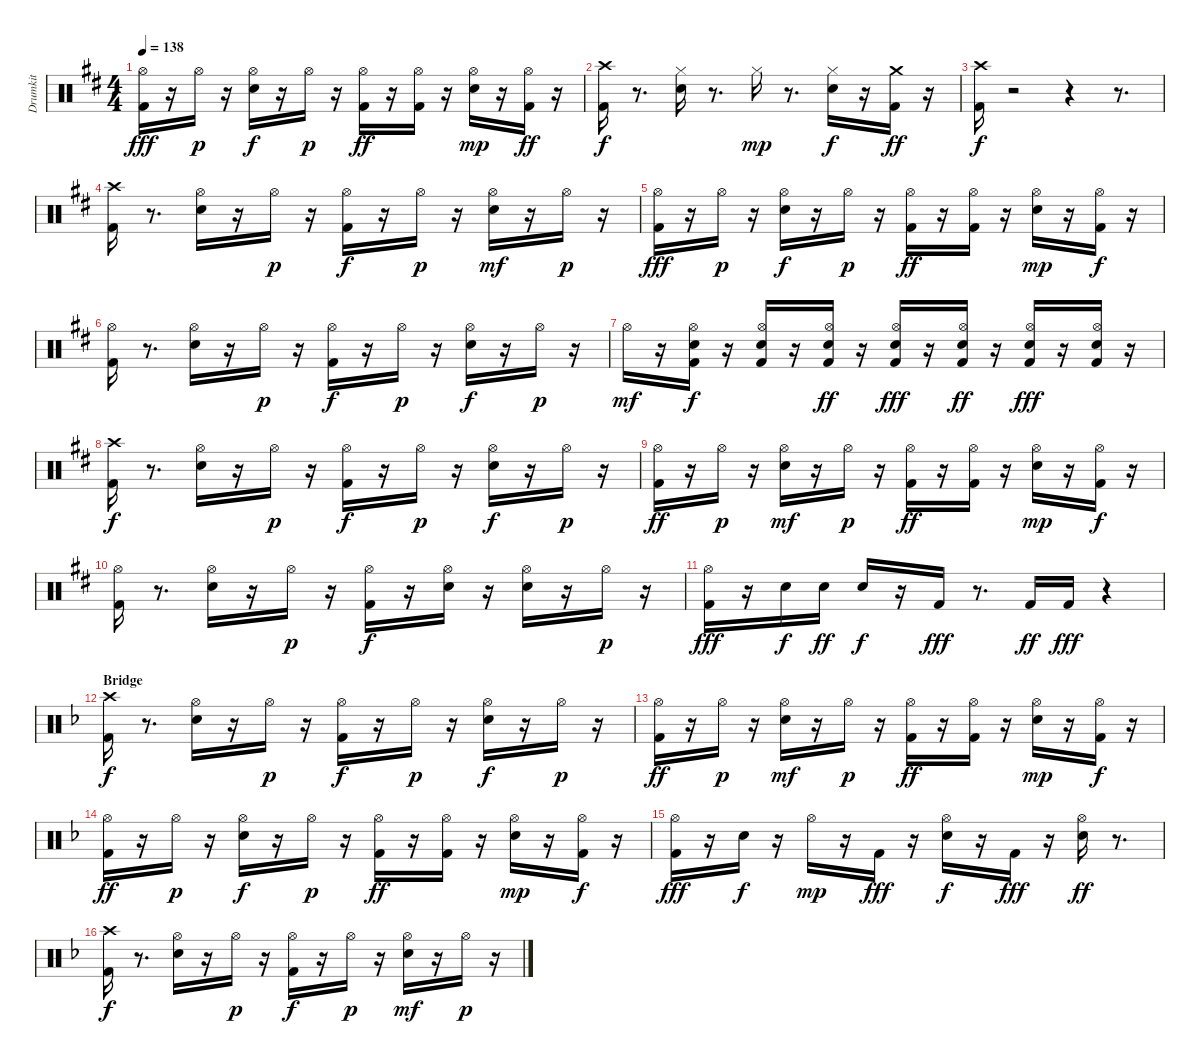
\track ("Drumkit" "Drumkit") {instrument percussion}
\staff {score}
\articulation defaults
\ts (4 4)
\tempo 138
\clef neutral
\ks d
("Kick (hit) 2" "Hi-Hat (open)").16{dy fff} r.16 "Hi-Hat (open)".16{dy p} r.16 ("Snare (hit) 2" "Hi-Hat (open)").16{dy f} r.16 "Hi-Hat (open)".16{dy p} r.16 ("Kick (hit) 2" "Hi-Hat (open)").16{dy ff} r.16 ("Kick (hit) 2" "Hi-Hat (open)").16 r.16 ("Snare (hit) 2" "Hi-Hat (open)").16{dy mp} r.16 ("Kick (hit) 2" "Hi-Hat (open)").16{dy ff} r.16 |
("Kick (hit) 2" "Crash high (hit)").16{dy f} r.8{d} ("Snare (hit) 2" "Hi-Hat (closed)").16 r.8{d} "Hi-Hat (closed)".16{dy mp} r.8{d} ("Snare (hit) 2" "Hi-Hat (closed)").16{dy f} r.16 ("Kick (hit) 2" "Crash medium (hit)").16{dy ff} r.16 |
("Kick (hit) 2" "Crash high (hit)").16{dy f} r.2 r.4 r.8{d} |
("Kick (hit) 2" "Crash high (hit)").16 r.8{d} ("Snare (hit) 2" "Hi-Hat (open)").16 r.16 "Hi-Hat (open)".16{dy p} r.16 ("Kick (hit) 2" "Hi-Hat (open)").16{dy f} r.16 "Hi-Hat (open)".16{dy p} r.16 ("Snare (hit) 2" "Hi-Hat (open)").16{dy mf} r.16 "Hi-Hat (open)".16{dy p} r.16 |
("Kick (hit) 2" "Hi-Hat (open)").16{dy fff} r.16 "Hi-Hat (open)".16{dy p} r.16 ("Snare (hit) 2" "Hi-Hat (open)").16{dy f} r.16 "Hi-Hat (open)".16{dy p} r.16 ("Kick (hit) 2" "Hi-Hat (open)").16{dy ff} r.16 ("Kick (hit) 2" "Hi-Hat (open)").16 r.16 ("Snare (hit) 2" "Hi-Hat (open)").16{dy mp} r.16 ("Kick (hit) 2" "Hi-Hat (open)").16{dy f} r.16 |
("Kick (hit) 2" "Hi-Hat (open)").16 r.8{d} ("Snare (hit) 2" "Hi-Hat (open)").16 r.16 "Hi-Hat (open)".16{dy p} r.16 ("Kick (hit) 2" "Hi-Hat (open)").16{dy f} r.16 "Hi-Hat (open)".16{dy p} r.16 ("Snare (hit) 2" "Hi-Hat (open)").16{dy f} r.16 "Hi-Hat (open)".16{dy p} r.16 |
"Hi-Hat (open)".16{dy mf} r.16 ("Kick (hit) 2" "Snare (hit) 2" "Hi-Hat (open)").16{dy f} r.16 ("Kick (hit) 2" "Snare (hit) 2" "Hi-Hat (open)").16 r.16 ("Kick (hit) 2" "Snare (hit) 2" "Hi-Hat (open)").16{dy ff} r.16 ("Kick (hit) 2" "Snare (hit) 2" "Hi-Hat (open)").16{dy fff} r.16 ("Kick (hit) 2" "Snare (hit) 2" "Hi-Hat (open)").16{dy ff} r.16 ("Kick (hit) 2" "Snare (hit) 2" "Hi-Hat (open)").16{dy fff} r.16 ("Kick (hit) 2" "Snare (hit) 2" "Hi-Hat (open)").16 r.16 |
("Kick (hit) 2" "Crash high (hit)").16{dy f} r.8{d} ("Snare (hit) 2" "Hi-Hat (open)").16 r.16 "Hi-Hat (open)".16{dy p} r.16 ("Kick (hit) 2" "Hi-Hat (open)").16{dy f} r.16 "Hi-Hat (open)".16{dy p} r.16 ("Snare (hit) 2" "Hi-Hat (open)").16{dy f} r.16 "Hi-Hat (open)".16{dy p} r.16 |
("Kick (hit) 2" "Hi-Hat (open)").16{dy ff} r.16 "Hi-Hat (open)".16{dy p} r.16 ("Snare (hit) 2" "Hi-Hat (open)").16{dy mf} r.16 "Hi-Hat (open)".16{dy p} r.16 ("Kick (hit) 2" "Hi-Hat (open)").16{dy ff} r.16 ("Kick (hit) 2" "Hi-Hat (open)").16 r.16 ("Snare (hit) 2" "Hi-Hat (open)").16{dy mp} r.16 ("Kick (hit) 2" "Hi-Hat (open)").16{dy f} r.16 |
("Kick (hit) 2" "Hi-Hat (open)").16 r.8{d} ("Snare (hit) 2" "Hi-Hat (open)").16 r.16 "Hi-Hat (open)".16{dy p} r.16 ("Kick (hit) 2" "Hi-Hat (open)").16{dy f} r.16 ("Snare (hit) 2" "Hi-Hat (open)").16 r.16 ("Snare (hit) 2" "Hi-Hat (open)").16 r.16 "Hi-Hat (open)".16{dy p} r.16 |
("Kick (hit) 2" "Hi-Hat (open)").16{dy fff} r.16 "Snare (hit) 2".16{dy f} "Snare (hit) 2".16{dy ff} "Snare (hit) 2".16{dy f} r.16 "Kick (hit) 2".16{dy fff} r.8{d} "Kick (hit) 2".16{dy ff} "Kick (hit) 2".16{dy fff} r.4 |
\section ("" "Bridge")
\ks f
("Kick (hit) 2" "Crash high (hit)").16{dy f} r.8{d} ("Snare (hit) 2" "Hi-Hat (open)").16 r.16 "Hi-Hat (open)".16{dy p} r.16 ("Kick (hit) 2" "Hi-Hat (open)").16{dy f} r.16 "Hi-Hat (open)".16{dy p} r.16 ("Snare (hit) 2" "Hi-Hat (open)").16{dy f} r.16 "Hi-Hat (open)".16{dy p} r.16 |
("Kick (hit) 2" "Hi-Hat (open)").16{dy ff} r.16 "Hi-Hat (open)".16{dy p} r.16 ("Snare (hit) 2" "Hi-Hat (open)").16{dy mf} r.16 "Hi-Hat (open)".16{dy p} r.16 ("Kick (hit) 2" "Hi-Hat (open)").16{dy ff} r.16 ("Kick (hit) 2" "Hi-Hat (open)").16 r.16 ("Snare (hit) 2" "Hi-Hat (open)").16{dy mp} r.16 ("Kick (hit) 2" "Hi-Hat (open)").16{dy f} r.16 |
("Kick (hit) 2" "Hi-Hat (open)").16{dy ff} r.16 "Hi-Hat (open)".16{dy p} r.16 ("Snare (hit) 2" "Hi-Hat (open)").16{dy f} r.16 "Hi-Hat (open)".16{dy p} r.16 ("Kick (hit) 2" "Hi-Hat (open)").16{dy ff} r.16 ("Kick (hit) 2" "Hi-Hat (open)").16 r.16 ("Snare (hit) 2" "Hi-Hat (open)").16{dy mp} r.16 ("Kick (hit) 2" "Hi-Hat (open)").16{dy f} r.16 |
("Kick (hit) 2" "Hi-Hat (open)").16{dy fff} r.16 "Snare (hit) 2".16{dy f} r.16 "Hi-Hat (open)".16{dy mp} r.16 "Kick (hit) 2".16{dy fff} r.16 ("Snare (hit) 2" "Hi-Hat (open)").16{dy f} r.16 "Kick (hit) 2".16{dy fff} r.16 ("Snare (hit) 2" "Hi-Hat (open)").16{dy ff} r.8{d} |
("Kick (hit) 2" "Crash high (hit)").16{dy f} r.8{d} ("Snare (hit) 2" "Hi-Hat (open)").16 r.16 "Hi-Hat (open)".16{dy p} r.16 ("Kick (hit) 2" "Hi-Hat (open)").16{dy f} r.16 "Hi-Hat (open)".16{dy p} r.16 ("Snare (hit) 2" "Hi-Hat (open)").16{dy mf} r.16 "Hi-Hat (open)".16{dy p} r.16
